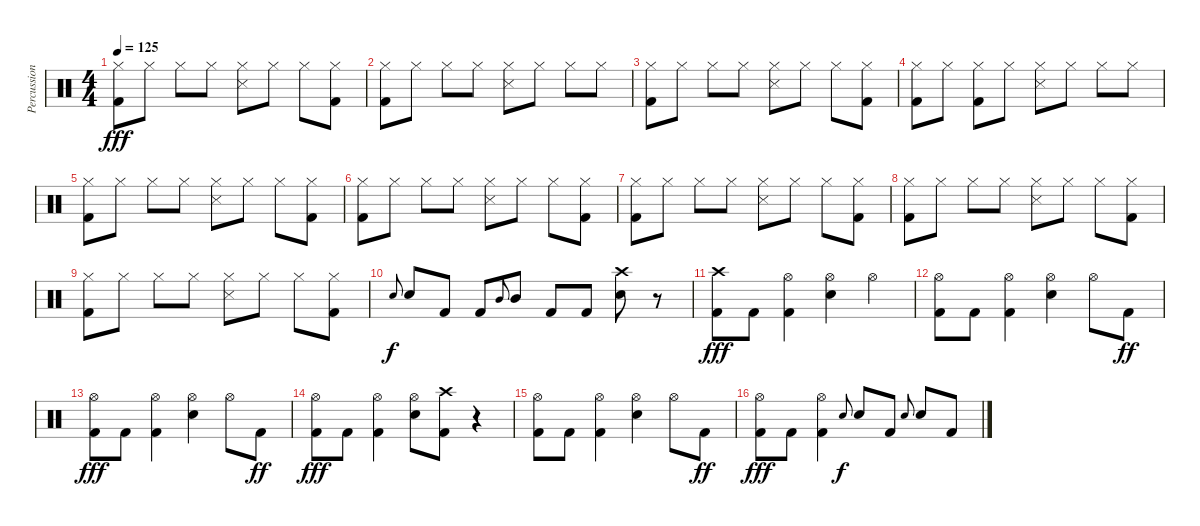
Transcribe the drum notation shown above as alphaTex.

\track ("Percussion" "Percussion") {instrument percussion}
\staff {score}
\articulation defaults
\ts (4 4)
\tempo 125
\clef neutral
\ks c
("Kick (hit) 2" "Hi-Hat (closed)").8{dy fff} "Hi-Hat (closed)".8 "Hi-Hat (closed)".8 "Hi-Hat (closed)".8 ("Snare (side stick) 3" "Hi-Hat (closed)").8 "Hi-Hat (closed)".8 "Hi-Hat (closed)".8 ("Kick (hit) 2" "Hi-Hat (closed)").8 |
("Kick (hit) 2" "Hi-Hat (closed)").8 "Hi-Hat (closed)".8 "Hi-Hat (closed)".8 "Hi-Hat (closed)".8 ("Snare (side stick) 3" "Hi-Hat (closed)").8 "Hi-Hat (closed)".8 "Hi-Hat (closed)".8 "Hi-Hat (closed)".8 |
("Kick (hit) 2" "Hi-Hat (closed)").8 "Hi-Hat (closed)".8 "Hi-Hat (closed)".8 "Hi-Hat (closed)".8 ("Snare (side stick) 3" "Hi-Hat (closed)").8 "Hi-Hat (closed)".8 "Hi-Hat (closed)".8 ("Kick (hit) 2" "Hi-Hat (closed)").8 |
("Kick (hit) 2" "Hi-Hat (closed)").8 "Hi-Hat (closed)".8 ("Kick (hit) 2" "Hi-Hat (closed)").8 "Hi-Hat (closed)".8 ("Snare (side stick) 3" "Hi-Hat (closed)").8 "Hi-Hat (closed)".8 "Hi-Hat (closed)".8 "Hi-Hat (closed)".8 |
("Kick (hit) 2" "Hi-Hat (closed)").8 "Hi-Hat (closed)".8 "Hi-Hat (closed)".8 "Hi-Hat (closed)".8 ("Snare (side stick) 3" "Hi-Hat (closed)").8 "Hi-Hat (closed)".8 "Hi-Hat (closed)".8 ("Kick (hit) 2" "Hi-Hat (closed)").8 |
("Kick (hit) 2" "Hi-Hat (closed)").8 "Hi-Hat (closed)".8 "Hi-Hat (closed)".8 "Hi-Hat (closed)".8 ("Snare (side stick) 3" "Hi-Hat (closed)").8 "Hi-Hat (closed)".8 "Hi-Hat (closed)".8 ("Kick (hit) 2" "Hi-Hat (closed)").8 |
("Kick (hit) 2" "Hi-Hat (closed)").8 "Hi-Hat (closed)".8 "Hi-Hat (closed)".8 "Hi-Hat (closed)".8 ("Snare (side stick) 3" "Hi-Hat (closed)").8 "Hi-Hat (closed)".8 "Hi-Hat (closed)".8 ("Kick (hit) 2" "Hi-Hat (closed)").8 |
("Kick (hit) 2" "Hi-Hat (closed)").8 "Hi-Hat (closed)".8 "Hi-Hat (closed)".8 "Hi-Hat (closed)".8 ("Snare (side stick) 3" "Hi-Hat (closed)").8 "Hi-Hat (closed)".8 "Hi-Hat (closed)".8 ("Kick (hit) 2" "Hi-Hat (closed)").8 |
("Kick (hit) 2" "Hi-Hat (closed)").8 "Hi-Hat (closed)".8 "Hi-Hat (closed)".8 "Hi-Hat (closed)".8 ("Snare (side stick) 3" "Hi-Hat (closed)").8 "Hi-Hat (closed)".8 "Hi-Hat (closed)".8 ("Kick (hit) 2" "Hi-Hat (closed)").8 |
"Electric Snare (hit)".8{gr onbeat dy f} "Electric Snare (hit)".8 "Kick (hit) 2".8 "Kick (hit) 2".8 "Mid Tom (hit)".8{gr onbeat} "Mid Tom (hit)".8 "Kick (hit) 2".8 "Kick (hit) 2".8 ("Electric Snare (hit)" "Crash high (hit)").8 r.8 |
("Kick (hit) 2" "Crash high (hit)").8{dy fff} "Kick (hit) 2".8 ("Kick (hit) 2" "Hi-Hat (open)").4 ("Electric Snare (hit)" "Hi-Hat (open)").4 "Hi-Hat (open)".4 |
("Kick (hit) 2" "Hi-Hat (open)").8 "Kick (hit) 2".8 ("Kick (hit) 2" "Hi-Hat (open)").4 ("Electric Snare (hit)" "Hi-Hat (open)").4 "Hi-Hat (open)".8 "Kick (hit) 2".8{dy ff} |
("Kick (hit) 2" "Hi-Hat (open)").8{dy fff} "Kick (hit) 2".8 ("Kick (hit) 2" "Hi-Hat (open)").4 ("Electric Snare (hit)" "Hi-Hat (open)").4 "Hi-Hat (open)".8 "Kick (hit) 2".8{dy ff} |
("Kick (hit) 2" "Hi-Hat (open)").8{dy fff} "Kick (hit) 2".8 ("Kick (hit) 2" "Hi-Hat (open)").4 ("Electric Snare (hit)" "Hi-Hat (open)").8 ("Kick (hit) 2" "Crash high (hit)").8 r.4 |
("Kick (hit) 2" "Hi-Hat (open)").8 "Kick (hit) 2".8 ("Kick (hit) 2" "Hi-Hat (open)").4 ("Electric Snare (hit)" "Hi-Hat (open)").4 "Hi-Hat (open)".8 "Kick (hit) 2".8{dy ff} |
("Kick (hit) 2" "Hi-Hat (open)").8{dy fff} "Kick (hit) 2".8 ("Kick (hit) 2" "Hi-Hat (open)").4 "Electric Snare (hit)".8{gr onbeat dy f} "Electric Snare (hit)".8 "Kick (hit) 2".8 "Electric Snare (hit)".8{gr onbeat} "Electric Snare (hit)".8 "Kick (hit) 2".8
